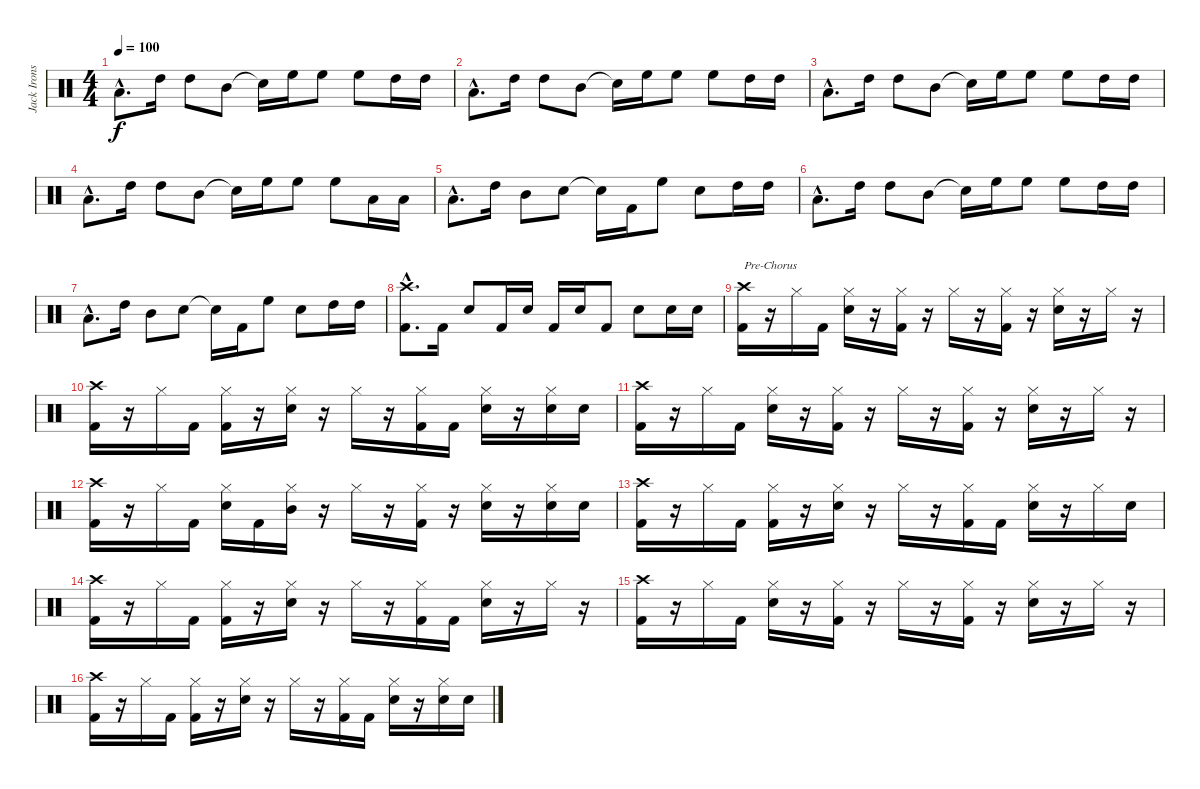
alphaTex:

\track ("Jack Irons" "Jack Irons") {instrument percussion}
\staff {score}
\articulation defaults
\ts (4 4)
\tempo 100
\clef neutral
\ks c "Low Floor Tom (hit)"{hac}.8{d dy f} "High Tom (hit)".16 "High Tom (hit)".8 "Mid Tom (hit)".8 "Snare (hit)"{t}.16 "High Floor Tom (hit)".16 "High Floor Tom (hit)".8 "High Floor Tom (hit)".8 "High Tom (hit)".16 "High Tom (hit)".16
|
"Low Floor Tom (hit)"{hac}.8{d} "High Tom (hit)".16 "High Tom (hit)".8 "Mid Tom (hit)".8 "Snare (hit)"{t}.16 "High Floor Tom (hit)".16 "High Floor Tom (hit)".8 "High Floor Tom (hit)".8 "High Tom (hit)".16 "High Tom (hit)".16 |
"Low Floor Tom (hit)"{hac}.8{d} "High Tom (hit)".16 "High Tom (hit)".8 "Mid Tom (hit)".8 "Snare (hit)"{t}.16 "High Floor Tom (hit)".16 "High Floor Tom (hit)".8 "High Floor Tom (hit)".8 "High Tom (hit)".16 "High Tom (hit)".16 |
"Low Floor Tom (hit)"{hac}.8{d} "High Tom (hit)".16 "High Tom (hit)".8 "Mid Tom (hit)".8 "Snare (hit)"{t}.16 "High Floor Tom (hit)".16 "High Floor Tom (hit)".8 "High Floor Tom (hit)".8 "Low Floor Tom (hit)".16 "Low Floor Tom (hit)".16 |
"Low Floor Tom (hit)"{hac}.8{d} "High Tom (hit)".16 "Mid Tom (hit)".8 "Snare (hit) 2".8 "Snare (hit)"{t}.16 "Kick (hit) 2".16 "High Floor Tom (hit)".8 "Snare (hit) 2".8 "High Tom (hit)".16 "High Tom (hit)".16 |
"Low Floor Tom (hit)"{hac}.8{d} "High Tom (hit)".16 "High Tom (hit)".8 "Mid Tom (hit)".8 "Snare (hit)"{t}.16 "High Floor Tom (hit)".16 "High Floor Tom (hit)".8 "High Floor Tom (hit)".8 "High Tom (hit)".16 "High Tom (hit)".16 |
"Low Floor Tom (hit)"{hac}.8{d} "High Tom (hit)".16 "Mid Tom (hit)".8 "Snare (hit) 2".8 "Snare (hit)"{t}.16 "Kick (hit) 2".16 "High Floor Tom (hit)".8 "Snare (hit) 2".8 "High Tom (hit)".16 "High Tom (hit)".16 |
("Crash high (hit)"{hac} "Kick (hit) 2"{hac}).8{d} "Kick (hit) 2".16 "Snare (hit) 2".8 "Kick (hit) 2".16 "Snare (hit) 2".16 "Kick (hit) 2".16 "Snare (hit) 2".16 "Kick (hit) 2".8 "Snare (hit) 2".8 "Snare (hit) 2".16 "Snare (hit) 2".16 |
("Crash high (hit)" "Kick (hit) 2").16{txt "Pre-Chorus"} r.16 "Hi-Hat (closed)".16 "Kick (hit) 2".16 ("Hi-Hat (closed)" "Snare (hit) 2").16 r.16 ("Hi-Hat (closed)" "Kick (hit) 2").16 r.16 "Hi-Hat (closed)".16 r.16 ("Hi-Hat (closed)" "Kick (hit) 2").16 r.16 ("Hi-Hat (closed)" "Snare (hit) 2").16 r.16 "Hi-Hat (closed)".16 r.16 |
("Crash high (hit)" "Kick (hit) 2").16 r.16 "Hi-Hat (closed)".16 "Kick (hit) 2".16 ("Hi-Hat (closed)" "Kick (hit) 2").16 r.16 ("Hi-Hat (closed)" "Snare (hit) 2").16 r.16 "Hi-Hat (closed)".16 r.16 ("Hi-Hat (closed)" "Kick (hit) 2").16 "Kick (hit) 2".16 ("Hi-Hat (closed)" "Snare (hit) 2").16 r.16 ("Hi-Hat (closed)" "Snare (hit) 2").16 "Snare (hit) 2".16 |
("Crash high (hit)" "Kick (hit) 2").16 r.16 "Hi-Hat (closed)".16 "Kick (hit) 2".16 ("Hi-Hat (closed)" "Snare (hit) 2").16 r.16 ("Hi-Hat (closed)" "Kick (hit) 2").16 r.16 "Hi-Hat (closed)".16 r.16 ("Hi-Hat (closed)" "Kick (hit) 2").16 r.16 ("Hi-Hat (closed)" "Snare (hit) 2").16 r.16 "Hi-Hat (closed)".16 r.16 |
("Crash high (hit)" "Kick (hit) 2").16 r.16 "Hi-Hat (closed)".16 "Kick (hit) 2".16 ("Hi-Hat (closed)" "Snare (hit) 2").16 "Kick (hit) 2".16 ("Hi-Hat (closed)" "Mid Tom (hit)").16 r.16 "Hi-Hat (closed)".16 r.16 ("Hi-Hat (closed)" "Kick (hit) 2").16 r.16 ("Hi-Hat (closed)" "Snare (hit) 2").16 r.16 ("Hi-Hat (closed)" "Snare (hit) 2").16 "Snare (hit) 2".16 |
("Crash high (hit)" "Kick (hit) 2").16 r.16 "Hi-Hat (closed)".16 "Kick (hit) 2".16 ("Hi-Hat (closed)" "Kick (hit) 2").16 r.16 ("Hi-Hat (closed)" "Snare (hit) 2").16 r.16 "Hi-Hat (closed)".16 r.16 ("Hi-Hat (closed)" "Kick (hit) 2").16 "Kick (hit) 2".16 ("Hi-Hat (closed)" "Snare (hit) 2").16 r.16 "Hi-Hat (closed)".16 "Snare (hit) 2".16 |
("Crash high (hit)" "Kick (hit) 2").16 r.16 "Hi-Hat (closed)".16 "Kick (hit) 2".16 ("Hi-Hat (closed)" "Kick (hit) 2").16 r.16 ("Hi-Hat (closed)" "Snare (hit) 2").16 r.16 "Hi-Hat (closed)".16 r.16 ("Hi-Hat (closed)" "Kick (hit) 2").16 "Kick (hit) 2".16 ("Hi-Hat (closed)" "Snare (hit) 2").16 r.16 "Hi-Hat (closed)".16 r.16 |
("Crash high (hit)" "Kick (hit) 2").16 r.16 "Hi-Hat (closed)".16 "Kick (hit) 2".16 ("Hi-Hat (closed)" "Snare (hit) 2").16 r.16 ("Hi-Hat (closed)" "Kick (hit) 2").16 r.16 "Hi-Hat (closed)".16 r.16 ("Hi-Hat (closed)" "Kick (hit) 2").16 r.16 ("Hi-Hat (closed)" "Snare (hit) 2").16 r.16 "Hi-Hat (closed)".16 r.16 |
("Crash high (hit)" "Kick (hit) 2").16 r.16 "Hi-Hat (closed)".16 "Kick (hit) 2".16 ("Hi-Hat (closed)" "Kick (hit) 2").16 r.16 ("Hi-Hat (closed)" "Snare (hit) 2").16 r.16 "Hi-Hat (closed)".16 r.16 ("Hi-Hat (closed)" "Kick (hit) 2").16 "Kick (hit) 2".16 ("Hi-Hat (closed)" "Snare (hit) 2").16 r.16 ("Hi-Hat (closed)" "Snare (hit) 2").16 "Snare (hit) 2".16
